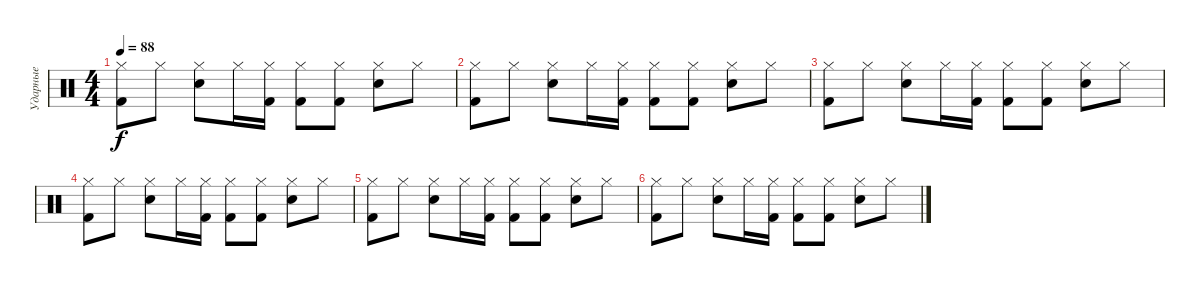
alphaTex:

\track ("Ударные" "Ударные") {instrument percussion}
\staff {score}
\articulation defaults
\ts (4 4)
\tempo 88
\clef neutral
\ks c
("Hi-Hat (closed)" "Kick (hit) 2").8{dy f} "Hi-Hat (closed)".8 ("Hi-Hat (closed)" "Snare (hit) 2").8 "Hi-Hat (closed)".16 ("Hi-Hat (closed)" "Kick (hit) 2").16 ("Hi-Hat (closed)" "Kick (hit) 2").8 ("Hi-Hat (closed)" "Kick (hit) 2").8 ("Hi-Hat (closed)" "Snare (hit) 2").8 "Hi-Hat (closed)".8 |
("Hi-Hat (closed)" "Kick (hit) 2").8 "Hi-Hat (closed)".8 ("Hi-Hat (closed)" "Snare (hit) 2").8 "Hi-Hat (closed)".16 ("Hi-Hat (closed)" "Kick (hit) 2").16 ("Hi-Hat (closed)" "Kick (hit) 2").8 ("Hi-Hat (closed)" "Kick (hit) 2").8 ("Hi-Hat (closed)" "Snare (hit) 2").8 "Hi-Hat (closed)".8 |
("Hi-Hat (closed)" "Kick (hit) 2").8 "Hi-Hat (closed)".8 ("Hi-Hat (closed)" "Snare (hit) 2").8 "Hi-Hat (closed)".16 ("Hi-Hat (closed)" "Kick (hit) 2").16 ("Hi-Hat (closed)" "Kick (hit) 2").8 ("Hi-Hat (closed)" "Kick (hit) 2").8 ("Hi-Hat (closed)" "Snare (hit) 2").8 "Hi-Hat (closed)".8 |
("Hi-Hat (closed)" "Kick (hit) 2").8 "Hi-Hat (closed)".8 ("Hi-Hat (closed)" "Snare (hit) 2").8 "Hi-Hat (closed)".16 ("Hi-Hat (closed)" "Kick (hit) 2").16 ("Hi-Hat (closed)" "Kick (hit) 2").8 ("Hi-Hat (closed)" "Kick (hit) 2").8 ("Hi-Hat (closed)" "Snare (hit) 2").8 "Hi-Hat (closed)".8 |
("Hi-Hat (closed)" "Kick (hit) 2").8 "Hi-Hat (closed)".8 ("Hi-Hat (closed)" "Snare (hit) 2").8 "Hi-Hat (closed)".16 ("Hi-Hat (closed)" "Kick (hit) 2").16 ("Hi-Hat (closed)" "Kick (hit) 2").8 ("Hi-Hat (closed)" "Kick (hit) 2").8 ("Hi-Hat (closed)" "Snare (hit) 2").8 "Hi-Hat (closed)".8 |
("Hi-Hat (closed)" "Kick (hit) 2").8 "Hi-Hat (closed)".8 ("Hi-Hat (closed)" "Snare (hit) 2").8 "Hi-Hat (closed)".16 ("Hi-Hat (closed)" "Kick (hit) 2").16 ("Hi-Hat (closed)" "Kick (hit) 2").8 ("Hi-Hat (closed)" "Kick (hit) 2").8 ("Hi-Hat (closed)" "Snare (hit) 2").8 "Hi-Hat (closed)".8
